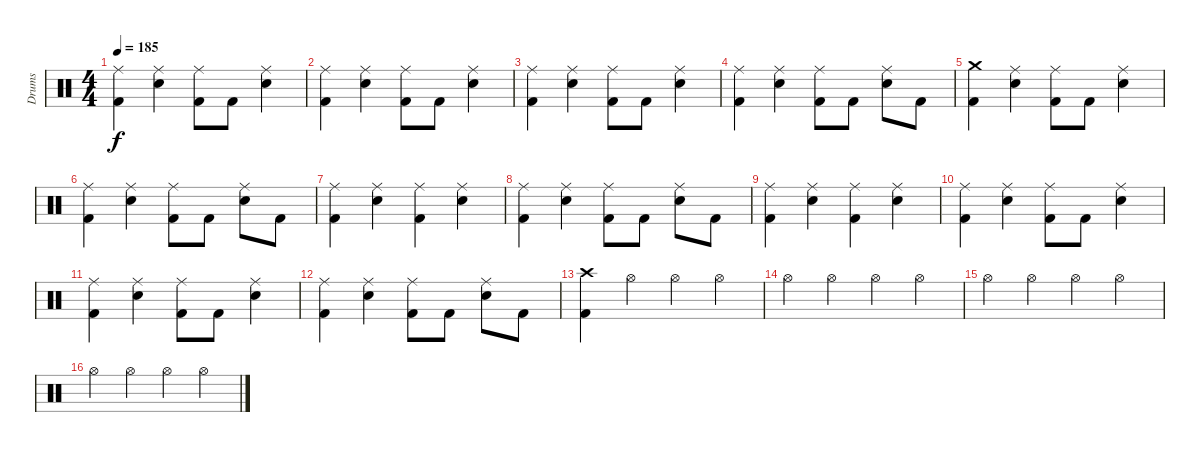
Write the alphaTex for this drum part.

\track ("Drums" "Drums") {instrument percussion}
\staff {score}
\articulation defaults
\ts (4 4)
\tempo 185
\clef neutral
\ks c
("Ride (middle)" "Kick (hit) 2").4{dy f} ("Ride (middle)" "Snare (hit) 2").4 ("Ride (middle)" "Kick (hit) 2").8 "Kick (hit) 2".8 ("Ride (middle)" "Snare (hit) 2").4 |
("Ride (middle)" "Kick (hit) 2").4 ("Ride (middle)" "Snare (hit) 2").4 ("Ride (middle)" "Kick (hit) 2").8 "Kick (hit) 2".8 ("Ride (middle)" "Snare (hit) 2").4 |
("Ride (middle)" "Kick (hit) 2").4 ("Ride (middle)" "Snare (hit) 2").4 ("Ride (middle)" "Kick (hit) 2").8 "Kick (hit) 2".8 ("Ride (middle)" "Snare (hit) 2").4 |
("Ride (middle)" "Kick (hit) 2").4 ("Ride (middle)" "Snare (hit) 2").4 ("Ride (middle)" "Kick (hit) 2").8 "Kick (hit) 2".8 ("Ride (middle)" "Snare (hit) 2").8 "Kick (hit) 2".8 |
("Crash medium (hit)" "Kick (hit) 2").4 ("Ride (middle)" "Snare (hit) 2").4 ("Ride (middle)" "Kick (hit) 2").8 "Kick (hit) 2".8 ("Ride (middle)" "Snare (hit) 2").4 |
("Ride (middle)" "Kick (hit) 2").4 ("Ride (middle)" "Snare (hit) 2").4 ("Ride (middle)" "Kick (hit) 2").8 "Kick (hit) 2".8 ("Ride (middle)" "Snare (hit) 2").8 "Kick (hit) 2".8 |
("Ride (middle)" "Kick (hit) 2").4 ("Ride (middle)" "Snare (hit) 2").4 ("Ride (middle)" "Kick (hit) 2").4 ("Ride (middle)" "Snare (hit) 2").4 |
("Ride (middle)" "Kick (hit) 2").4 ("Ride (middle)" "Snare (hit) 2").4 ("Ride (middle)" "Kick (hit) 2").8 "Kick (hit) 2".8 ("Ride (middle)" "Snare (hit) 2").8 "Kick (hit) 2".8 |
("Ride (middle)" "Kick (hit) 2").4 ("Ride (middle)" "Snare (hit) 2").4 ("Ride (middle)" "Kick (hit) 2").4 ("Ride (middle)" "Snare (hit) 2").4 |
("Ride (middle)" "Kick (hit) 2").4 ("Ride (middle)" "Snare (hit) 2").4 ("Ride (middle)" "Kick (hit) 2").8 "Kick (hit) 2".8 ("Ride (middle)" "Snare (hit) 2").4 |
("Ride (middle)" "Kick (hit) 2").4 ("Ride (middle)" "Snare (hit) 2").4 ("Ride (middle)" "Kick (hit) 2").8 "Kick (hit) 2".8 ("Ride (middle)" "Snare (hit) 2").4 |
("Ride (middle)" "Kick (hit) 2").4 ("Ride (middle)" "Snare (hit) 2").4 ("Ride (middle)" "Kick (hit) 2").8 "Kick (hit) 2".8 ("Ride (middle)" "Snare (hit) 2").8 "Kick (hit) 2".8 |
("Crash high (hit)" "Kick (hit) 2").4 "Hi-Hat (open)".4 "Hi-Hat (open)".4 "Hi-Hat (open)".4 |
"Hi-Hat (open)".4 "Hi-Hat (open)".4 "Hi-Hat (open)".4 "Hi-Hat (open)".4 |
"Hi-Hat (open)".4 "Hi-Hat (open)".4 "Hi-Hat (open)".4 "Hi-Hat (open)".4 |
"Hi-Hat (open)".4 "Hi-Hat (open)".4 "Hi-Hat (open)".4 "Hi-Hat (open)".4
